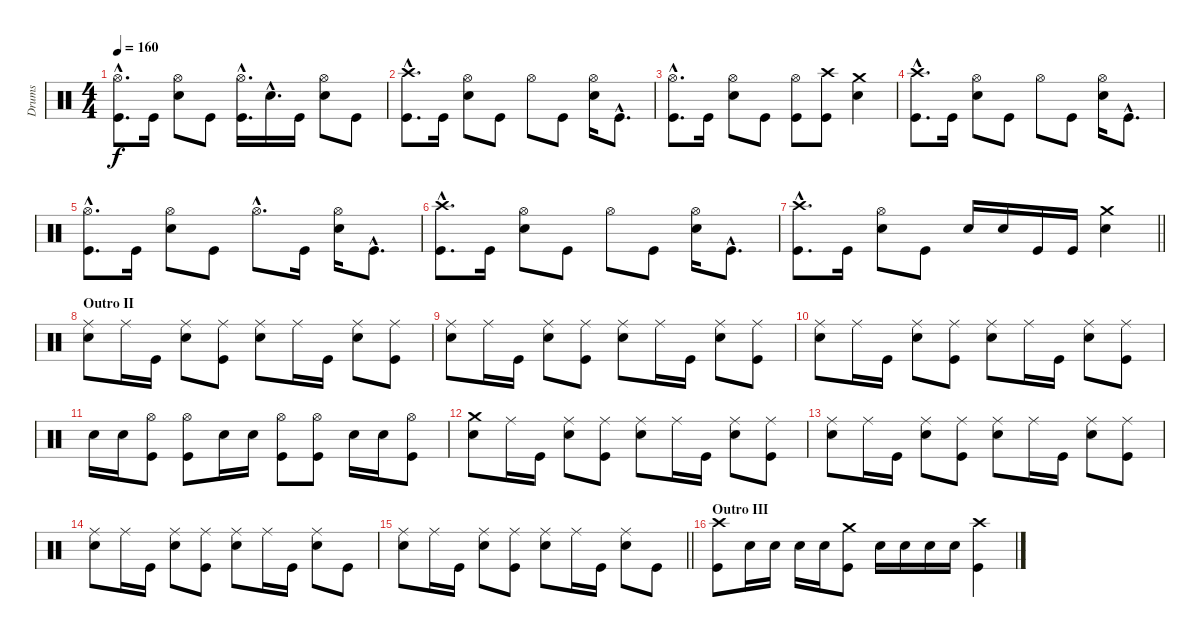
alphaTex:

\track ("Drums" "Drums") {instrument percussion}
\staff {score}
\articulation defaults
\ts (4 4)
\tempo 160
\clef neutral
\ks c
("Hi-Hat (open)"{hac} "Kick (hit)"{hac}).8{d dy f} "Kick (hit)".16 ("Hi-Hat (open)" "Electric Snare (hit)").8 "Kick (hit)".8 ("Hi-Hat (open)"{hac} "Kick (hit)"{hac}).16{d} "Electric Snare (hit)"{hac}.16{d} "Kick (hit)".16 ("Hi-Hat (open)" "Electric Snare (hit)").8 "Kick (hit)".8 |
("Crash high (hit)"{hac} "Kick (hit)"{hac}).8{d} "Kick (hit)".16 ("Hi-Hat (open)" "Electric Snare (hit)").8 "Kick (hit)".8 "Hi-Hat (open)".8 "Kick (hit)".8 ("Hi-Hat (open)" "Electric Snare (hit)").16 "Kick (hit)"{hac}.8{d} |
("Hi-Hat (open)"{hac} "Kick (hit)"{hac}).8{d} "Kick (hit)".16 ("Hi-Hat (open)" "Electric Snare (hit)").8 "Kick (hit)".8 ("Hi-Hat (open)" "Kick (hit)").8 ("Crash high (hit)" "Kick (hit)").8 ("Crash medium (hit)" "Electric Snare (hit)").4 |
("Crash high (hit)"{hac} "Kick (hit)"{hac}).8{d} "Kick (hit)".16 ("Hi-Hat (open)" "Electric Snare (hit)").8 "Kick (hit)".8 "Hi-Hat (open)".8 "Kick (hit)".8 ("Hi-Hat (open)" "Electric Snare (hit)").16 "Kick (hit)"{hac}.8{d} |
("Hi-Hat (open)"{hac} "Kick (hit)"{hac}).8{d} "Kick (hit)".16 ("Hi-Hat (open)" "Electric Snare (hit)").8 "Kick (hit)".8 "Hi-Hat (open)"{hac}.8{d} "Kick (hit)".16 ("Hi-Hat (open)" "Electric Snare (hit)").16 "Kick (hit)"{hac}.8{d} |
("Crash high (hit)"{hac} "Kick (hit)"{hac}).8{d} "Kick (hit)".16 ("Hi-Hat (open)" "Electric Snare (hit)").8 "Kick (hit)".8 "Hi-Hat (open)".8 "Kick (hit)".8 ("Hi-Hat (open)" "Electric Snare (hit)").16 "Kick (hit)"{hac}.8{d} |
\barLineRight lightlight
("Crash high (hit)"{hac} "Kick (hit)"{hac}).8{d} "Kick (hit)".16 ("Hi-Hat (open)" "Electric Snare (hit)").8 "Kick (hit)".8 "Electric Snare (hit)".16 "Electric Snare (hit)".16 "Kick (hit)".16 "Kick (hit)".16 ("Crash medium (hit)" "Electric Snare (hit)").4 |
\section ("" "Outro II")
("Ride (middle)" "Electric Snare (hit)").8 "Ride (middle)".16 "Kick (hit)".16 ("Ride (middle)" "Electric Snare (hit)").8 ("Ride (middle)" "Kick (hit)").8 ("Ride (middle)" "Electric Snare (hit)").8 "Ride (middle)".16 "Kick (hit)".16 ("Ride (middle)" "Electric Snare (hit)").8 ("Ride (middle)" "Kick (hit)").8 |
("Ride (middle)" "Electric Snare (hit)").8 "Ride (middle)".16 "Kick (hit)".16 ("Ride (middle)" "Electric Snare (hit)").8 ("Ride (middle)" "Kick (hit)").8 ("Ride (middle)" "Electric Snare (hit)").8 "Ride (middle)".16 "Kick (hit)".16 ("Ride (middle)" "Electric Snare (hit)").8 ("Ride (middle)" "Kick (hit)").8 |
("Ride (middle)" "Electric Snare (hit)").8 "Ride (middle)".16 "Kick (hit)".16 ("Ride (middle)" "Electric Snare (hit)").8 ("Ride (middle)" "Kick (hit)").8 ("Ride (middle)" "Electric Snare (hit)").8 "Ride (middle)".16 "Kick (hit)".16 ("Ride (middle)" "Electric Snare (hit)").8 ("Ride (middle)" "Kick (hit)").8 |
"Electric Snare (hit)".16 "Electric Snare (hit)".16 ("Hi-Hat (open)" "Kick (hit)").8 ("Hi-Hat (open)" "Kick (hit)").8 "Electric Snare (hit)".16 "Electric Snare (hit)".16 ("Hi-Hat (open)" "Kick (hit)").8 ("Hi-Hat (open)" "Kick (hit)").8 "Electric Snare (hit)".16 "Electric Snare (hit)".16 ("Hi-Hat (open)" "Kick (hit)").8 |
("Crash medium (hit)" "Electric Snare (hit)").8 "Ride (middle)".16 "Kick (hit)".16 ("Ride (middle)" "Electric Snare (hit)").8 ("Ride (middle)" "Kick (hit)").8 ("Ride (middle)" "Electric Snare (hit)").8 "Ride (middle)".16 "Kick (hit)".16 ("Ride (middle)" "Electric Snare (hit)").8 ("Ride (middle)" "Kick (hit)").8 |
("Ride (middle)" "Electric Snare (hit)").8 "Ride (middle)".16 "Kick (hit)".16 ("Ride (middle)" "Electric Snare (hit)").8 ("Ride (middle)" "Kick (hit)").8 ("Ride (middle)" "Electric Snare (hit)").8 "Ride (middle)".16 "Kick (hit)".16 ("Ride (middle)" "Electric Snare (hit)").8 ("Ride (middle)" "Kick (hit)").8 |
("Ride (middle)" "Electric Snare (hit)").8 "Ride (middle)".16 "Kick (hit)".16 ("Ride (middle)" "Electric Snare (hit)").8 ("Ride (middle)" "Kick (hit)").8 ("Ride (middle)" "Electric Snare (hit)").8 "Ride (middle)".16 "Kick (hit)".16 ("Ride (middle)" "Electric Snare (hit)").8 "Kick (hit)".8 |
\barLineRight lightlight
("Ride (middle)" "Electric Snare (hit)").8 "Ride (middle)".16 "Kick (hit)".16 ("Ride (middle)" "Electric Snare (hit)").8 ("Ride (middle)" "Kick (hit)").8 ("Ride (middle)" "Electric Snare (hit)").8 "Ride (middle)".16 "Kick (hit)".16 ("Ride (middle)" "Electric Snare (hit)").8 "Kick (hit)".8 |
\section ("" "Outro III")
("Crash high (hit)" "Kick (hit)").8 "Electric Snare (hit)".16 "Electric Snare (hit)".16 "Electric Snare (hit)".16 "Electric Snare (hit)".16 ("Crash medium (hit)" "Kick (hit)").8 "Electric Snare (hit)".16 "Electric Snare (hit)".16 "Electric Snare (hit)".16 "Electric Snare (hit)".16 ("Crash high (hit)" "Kick (hit)").4
